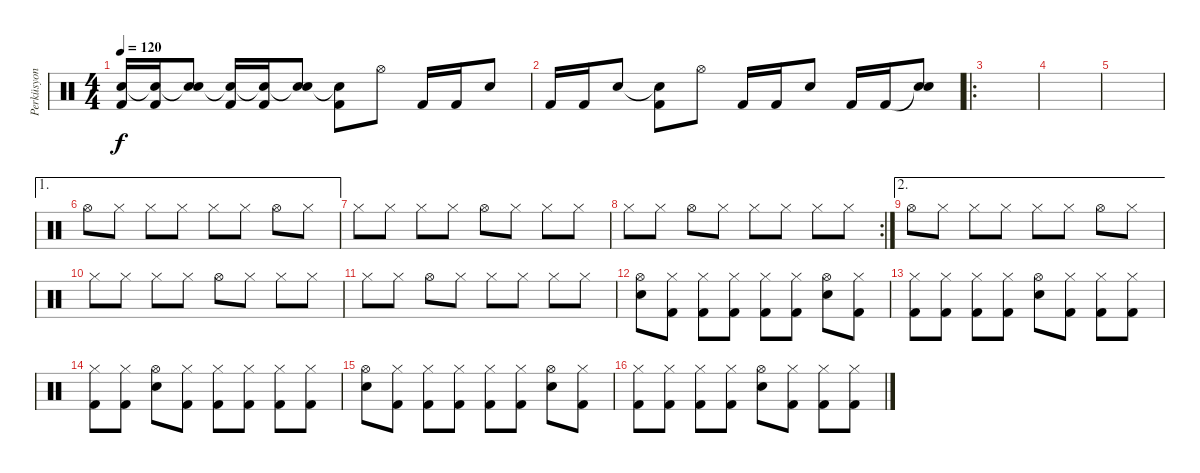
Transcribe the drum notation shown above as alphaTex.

\track ("Perküsyon" "Perküsyon") {instrument percussion}
\staff {score}
\articulation defaults
\ts (4 4)
\tempo 120
\clef neutral
\ks c
("Snare (hit)"{t} "Kick (hit) 2").16{dy f} ("Snare (hit)"{t} "Kick (hit) 2").16 ("Snare (hit)"{t} "Snare (hit) 2").8 ("Snare (hit)"{t} "Kick (hit) 2").16 ("Snare (hit)"{t} "Kick (hit) 2").16 ("Snare (hit)"{t} "Snare (hit) 2").8 ("Snare (hit)"{t} "Kick (hit) 2").8 "Hi-Hat (open)".8 "Kick (hit) 2".16 "Kick (hit) 2".16 "Snare (hit) 2".8 |
"Kick (hit) 2".16 "Kick (hit) 2".16 "Snare (hit) 2".8 ("Snare (hit)"{t} "Kick (hit) 2").8 "Hi-Hat (open)".8 "Kick (hit) 2".16 "Kick (hit) 2".16 "Snare (hit) 2".8 "Kick (hit) 2".16 "Kick (hit) 2".16 ("Snare (hit)"{t} "Snare (hit) 2").8 |
\ro
|
|
|
\ae 1 "Hi-Hat (open)".8 "Hi-Hat (closed)".8 "Hi-Hat (closed)".8 "Hi-Hat (closed)".8 "Hi-Hat (closed)".8 "Hi-Hat (closed)".8 "Hi-Hat (open)".8 "Hi-Hat (closed)".8
|
"Hi-Hat (closed)".8 "Hi-Hat (closed)".8 "Hi-Hat (closed)".8 "Hi-Hat (closed)".8 "Hi-Hat (open)".8 "Hi-Hat (closed)".8 "Hi-Hat (closed)".8 "Hi-Hat (closed)".8 |
\rc 2 "Hi-Hat (closed)".8 "Hi-Hat (closed)".8 "Hi-Hat (open)".8 "Hi-Hat (closed)".8 "Hi-Hat (closed)".8 "Hi-Hat (closed)".8 "Hi-Hat (closed)".8 "Hi-Hat (closed)".8
|
\ae 2 "Hi-Hat (open)".8 "Hi-Hat (closed)".8 "Hi-Hat (closed)".8 "Hi-Hat (closed)".8 "Hi-Hat (closed)".8 "Hi-Hat (closed)".8 "Hi-Hat (open)".8 "Hi-Hat (closed)".8
|
"Hi-Hat (closed)".8 "Hi-Hat (closed)".8 "Hi-Hat (closed)".8 "Hi-Hat (closed)".8 "Hi-Hat (open)".8 "Hi-Hat (closed)".8 "Hi-Hat (closed)".8 "Hi-Hat (closed)".8 |
"Hi-Hat (closed)".8 "Hi-Hat (closed)".8 "Hi-Hat (open)".8 "Hi-Hat (closed)".8 "Hi-Hat (closed)".8 "Hi-Hat (closed)".8 "Hi-Hat (closed)".8 "Hi-Hat (closed)".8 |
("Hi-Hat (open)" "Electric Snare (hit)").8 ("Hi-Hat (closed)" "Kick (hit) 2").8 ("Hi-Hat (closed)" "Kick (hit) 2").8 ("Hi-Hat (closed)" "Kick (hit) 2").8 ("Hi-Hat (closed)" "Kick (hit) 2").8 ("Hi-Hat (closed)" "Kick (hit) 2").8 ("Hi-Hat (open)" "Electric Snare (hit)").8 ("Hi-Hat (closed)" "Kick (hit) 2").8 |
("Hi-Hat (closed)" "Kick (hit) 2").8 ("Hi-Hat (closed)" "Kick (hit) 2").8 ("Hi-Hat (closed)" "Kick (hit) 2").8 ("Hi-Hat (closed)" "Kick (hit) 2").8 ("Hi-Hat (open)" "Electric Snare (hit)").8 ("Hi-Hat (closed)" "Kick (hit) 2").8 ("Hi-Hat (closed)" "Kick (hit) 2").8 ("Hi-Hat (closed)" "Kick (hit) 2").8 |
("Hi-Hat (closed)" "Kick (hit) 2").8 ("Hi-Hat (closed)" "Kick (hit) 2").8 ("Hi-Hat (open)" "Electric Snare (hit)").8 ("Hi-Hat (closed)" "Kick (hit) 2").8 ("Hi-Hat (closed)" "Kick (hit) 2").8 ("Hi-Hat (closed)" "Kick (hit) 2").8 ("Hi-Hat (closed)" "Kick (hit) 2").8 ("Hi-Hat (closed)" "Kick (hit) 2").8 |
("Hi-Hat (open)" "Electric Snare (hit)").8 ("Hi-Hat (closed)" "Kick (hit) 2").8 ("Hi-Hat (closed)" "Kick (hit) 2").8 ("Hi-Hat (closed)" "Kick (hit) 2").8 ("Hi-Hat (closed)" "Kick (hit) 2").8 ("Hi-Hat (closed)" "Kick (hit) 2").8 ("Hi-Hat (open)" "Electric Snare (hit)").8 ("Hi-Hat (closed)" "Kick (hit) 2").8 |
("Hi-Hat (closed)" "Kick (hit) 2").8 ("Hi-Hat (closed)" "Kick (hit) 2").8 ("Hi-Hat (closed)" "Kick (hit) 2").8 ("Hi-Hat (closed)" "Kick (hit) 2").8 ("Hi-Hat (open)" "Electric Snare (hit)").8 ("Hi-Hat (closed)" "Kick (hit) 2").8 ("Hi-Hat (closed)" "Kick (hit) 2").8 ("Hi-Hat (closed)" "Kick (hit) 2").8
